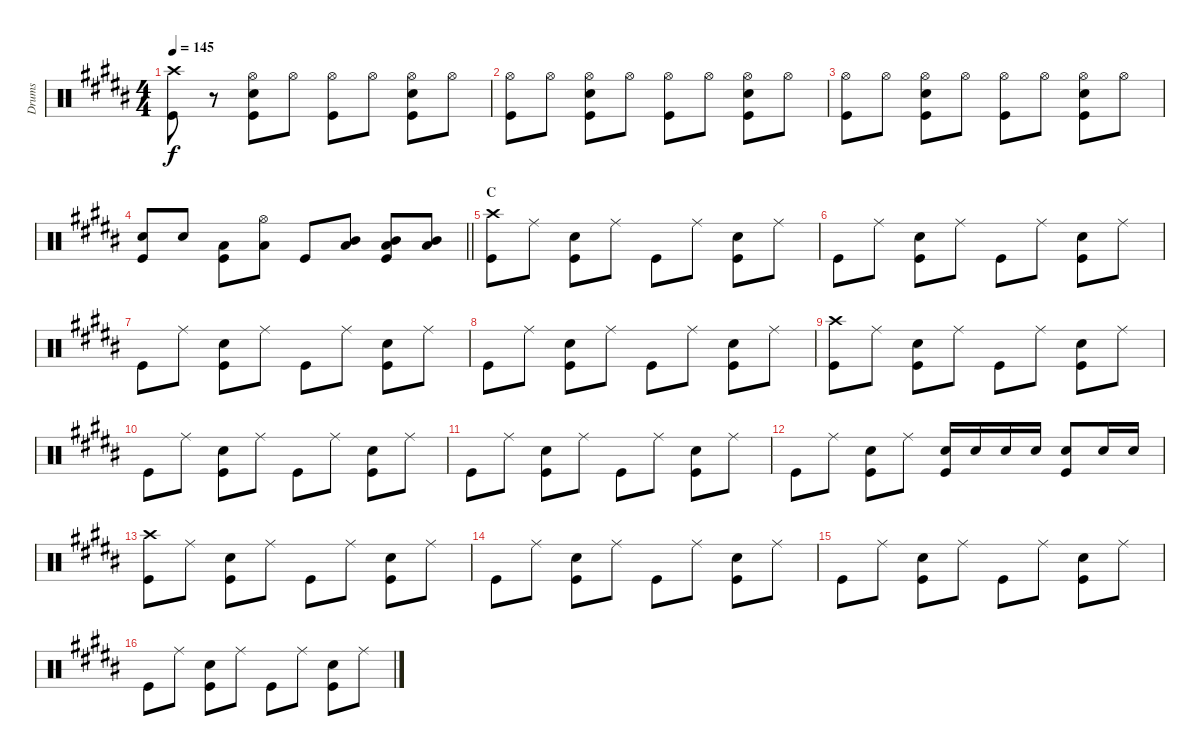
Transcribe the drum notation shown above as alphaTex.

\track ("Drums" "Drums") {instrument percussion}
\staff {score}
\articulation defaults
\ts (4 4)
\tempo 145
\clef neutral
\ks b
("Crash high (hit)" "Kick (hit)").8{dy f} r.8 ("Hi-Hat (open)" "Snare (hit) 2" "Kick (hit)").8 "Hi-Hat (open)".8 ("Hi-Hat (open)" "Kick (hit)").8 "Hi-Hat (open)".8 ("Hi-Hat (open)" "Snare (hit) 2" "Kick (hit)").8 "Hi-Hat (open)".8 |
("Hi-Hat (open)" "Kick (hit)").8 "Hi-Hat (open)".8 ("Hi-Hat (open)" "Snare (hit) 2" "Kick (hit)").8 "Hi-Hat (open)".8 ("Hi-Hat (open)" "Kick (hit)").8 "Hi-Hat (open)".8 ("Hi-Hat (open)" "Snare (hit) 2" "Kick (hit)").8 "Hi-Hat (open)".8 |
("Hi-Hat (open)" "Kick (hit)").8 "Hi-Hat (open)".8 ("Hi-Hat (open)" "Snare (hit) 2" "Kick (hit)").8 "Hi-Hat (open)".8 ("Hi-Hat (open)" "Kick (hit)").8 "Hi-Hat (open)".8 ("Hi-Hat (open)" "Snare (hit) 2" "Kick (hit)").8 "Hi-Hat (open)".8 |
\barLineRight lightlight
("Snare (hit) 2" "Kick (hit)").8 "Snare (hit) 2".8 ("Low Tom (hit)" "Kick (hit)").8 ("Hi-Hat (open)" "Low Tom (hit)").8 "Kick (hit)".8 ("Mid Tom (hit)" "Low Tom (hit)").8 ("Mid Tom (hit)" "Low Tom (hit)" "Kick (hit)").8 ("Mid Tom (hit)" "Low Tom (hit)").8 |
\section ("" "C")
("Crash high (hit)" "Kick (hit)").8 "Ride (middle)".8 ("Snare (hit) 2" "Kick (hit)").8 "Ride (middle)".8 "Kick (hit)".8 "Ride (middle)".8 ("Snare (hit) 2" "Kick (hit)").8 "Ride (middle)".8 |
"Kick (hit)".8 "Ride (middle)".8 ("Snare (hit) 2" "Kick (hit)").8 "Ride (middle)".8 "Kick (hit)".8 "Ride (middle)".8 ("Snare (hit) 2" "Kick (hit)").8 "Ride (middle)".8 |
"Kick (hit)".8 "Ride (middle)".8 ("Snare (hit) 2" "Kick (hit)").8 "Ride (middle)".8 "Kick (hit)".8 "Ride (middle)".8 ("Snare (hit) 2" "Kick (hit)").8 "Ride (middle)".8 |
"Kick (hit)".8 "Ride (middle)".8 ("Snare (hit) 2" "Kick (hit)").8 "Ride (middle)".8 "Kick (hit)".8 "Ride (middle)".8 ("Snare (hit) 2" "Kick (hit)").8 "Ride (middle)".8 |
("Crash high (hit)" "Kick (hit)").8 "Ride (middle)".8 ("Snare (hit) 2" "Kick (hit)").8 "Ride (middle)".8 "Kick (hit)".8 "Ride (middle)".8 ("Snare (hit) 2" "Kick (hit)").8 "Ride (middle)".8 |
"Kick (hit)".8 "Ride (middle)".8 ("Snare (hit) 2" "Kick (hit)").8 "Ride (middle)".8 "Kick (hit)".8 "Ride (middle)".8 ("Snare (hit) 2" "Kick (hit)").8 "Ride (middle)".8 |
"Kick (hit)".8 "Ride (middle)".8 ("Snare (hit) 2" "Kick (hit)").8 "Ride (middle)".8 "Kick (hit)".8 "Ride (middle)".8 ("Snare (hit) 2" "Kick (hit)").8 "Ride (middle)".8 |
"Kick (hit)".8 "Ride (middle)".8 ("Snare (hit) 2" "Kick (hit)").8 "Ride (middle)".8 ("Snare (hit) 2" "Kick (hit)").16 "Snare (hit) 2".16 "Snare (hit) 2".16 "Snare (hit) 2".16 ("Snare (hit) 2" "Kick (hit)").8 "Snare (hit) 2".16 "Snare (hit) 2".16 |
("Crash high (hit)" "Kick (hit)").8 "Ride (middle)".8 ("Snare (hit) 2" "Kick (hit)").8 "Ride (middle)".8 "Kick (hit)".8 "Ride (middle)".8 ("Snare (hit) 2" "Kick (hit)").8 "Ride (middle)".8 |
"Kick (hit)".8 "Ride (middle)".8 ("Snare (hit) 2" "Kick (hit)").8 "Ride (middle)".8 "Kick (hit)".8 "Ride (middle)".8 ("Snare (hit) 2" "Kick (hit)").8 "Ride (middle)".8 |
"Kick (hit)".8 "Ride (middle)".8 ("Snare (hit) 2" "Kick (hit)").8 "Ride (middle)".8 "Kick (hit)".8 "Ride (middle)".8 ("Snare (hit) 2" "Kick (hit)").8 "Ride (middle)".8 |
"Kick (hit)".8 "Ride (middle)".8 ("Snare (hit) 2" "Kick (hit)").8 "Ride (middle)".8 "Kick (hit)".8 "Ride (middle)".8 ("Snare (hit) 2" "Kick (hit)").8 "Ride (middle)".8
